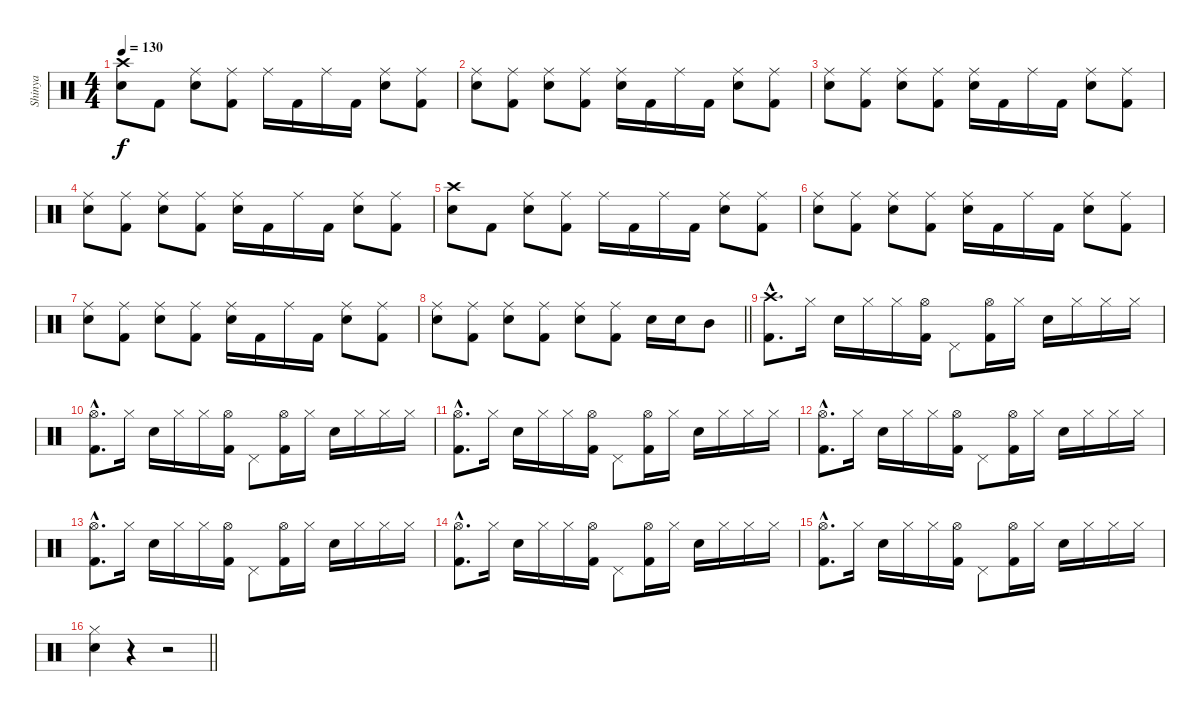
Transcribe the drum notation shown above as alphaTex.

\track ("Shinya" "Shinya") {instrument percussion}
\staff {score}
\articulation defaults
\ts (4 4)
\tempo 130
\clef neutral
\ks c
("Crash high (hit)" "Electric Snare (hit)").8{dy f} "Kick (hit) 2".8 ("Ride (middle)" "Electric Snare (hit)").8 ("Ride (middle)" "Kick (hit) 2").8 "Ride (middle)".16 "Kick (hit) 2".16 "Ride (middle)".16 "Kick (hit) 2".16 ("Ride (middle)" "Electric Snare (hit)").8 ("Ride (middle)" "Kick (hit) 2").8 |
("Ride (middle)" "Electric Snare (hit)").8 ("Ride (middle)" "Kick (hit) 2").8 ("Ride (middle)" "Electric Snare (hit)").8 ("Ride (middle)" "Kick (hit) 2").8 ("Ride (middle)" "Electric Snare (hit)").16 "Kick (hit) 2".16 "Ride (middle)".16 "Kick (hit) 2".16 ("Ride (middle)" "Electric Snare (hit)").8 ("Ride (middle)" "Kick (hit) 2").8 |
("Ride (middle)" "Electric Snare (hit)").8 ("Ride (middle)" "Kick (hit) 2").8 ("Ride (middle)" "Electric Snare (hit)").8 ("Ride (middle)" "Kick (hit) 2").8 ("Ride (middle)" "Electric Snare (hit)").16 "Kick (hit) 2".16 "Ride (middle)".16 "Kick (hit) 2".16 ("Ride (middle)" "Electric Snare (hit)").8 ("Ride (middle)" "Kick (hit) 2").8 |
("Ride (middle)" "Electric Snare (hit)").8 ("Ride (middle)" "Kick (hit) 2").8 ("Ride (middle)" "Electric Snare (hit)").8 ("Ride (middle)" "Kick (hit) 2").8 ("Ride (middle)" "Electric Snare (hit)").16 "Kick (hit) 2".16 "Ride (middle)".16 "Kick (hit) 2".16 ("Ride (middle)" "Electric Snare (hit)").8 ("Ride (middle)" "Kick (hit) 2").8 |
("Crash high (hit)" "Electric Snare (hit)").8 "Kick (hit) 2".8 ("Ride (middle)" "Electric Snare (hit)").8 ("Ride (middle)" "Kick (hit) 2").8 "Ride (middle)".16 "Kick (hit) 2".16 "Ride (middle)".16 "Kick (hit) 2".16 ("Ride (middle)" "Electric Snare (hit)").8 ("Ride (middle)" "Kick (hit) 2").8 |
("Ride (middle)" "Electric Snare (hit)").8 ("Ride (middle)" "Kick (hit) 2").8 ("Ride (middle)" "Electric Snare (hit)").8 ("Ride (middle)" "Kick (hit) 2").8 ("Ride (middle)" "Electric Snare (hit)").16 "Kick (hit) 2".16 "Ride (middle)".16 "Kick (hit) 2".16 ("Ride (middle)" "Electric Snare (hit)").8 ("Ride (middle)" "Kick (hit) 2").8 |
("Ride (middle)" "Electric Snare (hit)").8 ("Ride (middle)" "Kick (hit) 2").8 ("Ride (middle)" "Electric Snare (hit)").8 ("Ride (middle)" "Kick (hit) 2").8 ("Ride (middle)" "Electric Snare (hit)").16 "Kick (hit) 2".16 "Ride (middle)".16 "Kick (hit) 2".16 ("Ride (middle)" "Electric Snare (hit)").8 ("Ride (middle)" "Kick (hit) 2").8 |
\barLineRight lightlight
("Ride (middle)" "Electric Snare (hit)").8 ("Ride (middle)" "Kick (hit) 2").8 ("Ride (middle)" "Electric Snare (hit)").8 ("Ride (middle)" "Kick (hit) 2").8 ("Ride (middle)" "Electric Snare (hit)").8 ("Ride (middle)" "Kick (hit) 2").8 "Electric Snare (hit)".16 "Electric Snare (hit)".16 "Mid Tom (hit)".8 |
("Crash high (hit)"{hac} "Kick (hit) 2"{hac}).8{d} "Hi-Hat (closed)".16 "Electric Snare (hit)".16 "Hi-Hat (closed)".16 "Hi-Hat (closed)".16 ("Hi-Hat (open)" "Kick (hit) 2").16 "Pedal Hi-Hat (hit)".8 ("Hi-Hat (open)" "Kick (hit) 2").16 "Hi-Hat (closed)".16 "Electric Snare (hit)".16 "Hi-Hat (closed)".16 "Hi-Hat (closed)".16 "Hi-Hat (closed)".16 |
("Hi-Hat (open)"{hac} "Kick (hit) 2"{hac}).8{d} "Hi-Hat (closed)".16 "Electric Snare (hit)".16 "Hi-Hat (closed)".16 "Hi-Hat (closed)".16 ("Hi-Hat (open)" "Kick (hit) 2").16 "Pedal Hi-Hat (hit)".8 ("Hi-Hat (open)" "Kick (hit) 2").16 "Hi-Hat (closed)".16 "Electric Snare (hit)".16 "Hi-Hat (closed)".16 "Hi-Hat (closed)".16 "Hi-Hat (closed)".16 |
("Hi-Hat (open)"{hac} "Kick (hit) 2"{hac}).8{d} "Hi-Hat (closed)".16 "Electric Snare (hit)".16 "Hi-Hat (closed)".16 "Hi-Hat (closed)".16 ("Hi-Hat (open)" "Kick (hit) 2").16 "Pedal Hi-Hat (hit)".8 ("Hi-Hat (open)" "Kick (hit) 2").16 "Hi-Hat (closed)".16 "Electric Snare (hit)".16 "Hi-Hat (closed)".16 "Hi-Hat (closed)".16 "Hi-Hat (closed)".16 |
("Hi-Hat (open)"{hac} "Kick (hit) 2"{hac}).8{d} "Hi-Hat (closed)".16 "Electric Snare (hit)".16 "Hi-Hat (closed)".16 "Hi-Hat (closed)".16 ("Hi-Hat (open)" "Kick (hit) 2").16 "Pedal Hi-Hat (hit)".8 ("Hi-Hat (open)" "Kick (hit) 2").16 "Hi-Hat (closed)".16 "Electric Snare (hit)".16 "Hi-Hat (closed)".16 "Hi-Hat (closed)".16 "Hi-Hat (closed)".16 |
("Hi-Hat (open)"{hac} "Kick (hit) 2"{hac}).8{d} "Hi-Hat (closed)".16 "Electric Snare (hit)".16 "Hi-Hat (closed)".16 "Hi-Hat (closed)".16 ("Hi-Hat (open)" "Kick (hit) 2").16 "Pedal Hi-Hat (hit)".8 ("Hi-Hat (open)" "Kick (hit) 2").16 "Hi-Hat (closed)".16 "Electric Snare (hit)".16 "Hi-Hat (closed)".16 "Hi-Hat (closed)".16 "Hi-Hat (closed)".16 |
("Hi-Hat (open)"{hac} "Kick (hit) 2"{hac}).8{d} "Hi-Hat (closed)".16 "Electric Snare (hit)".16 "Hi-Hat (closed)".16 "Hi-Hat (closed)".16 ("Hi-Hat (open)" "Kick (hit) 2").16 "Pedal Hi-Hat (hit)".8 ("Hi-Hat (open)" "Kick (hit) 2").16 "Hi-Hat (closed)".16 "Electric Snare (hit)".16 "Hi-Hat (closed)".16 "Hi-Hat (closed)".16 "Hi-Hat (closed)".16 |
("Hi-Hat (open)"{hac} "Kick (hit) 2"{hac}).8{d} "Hi-Hat (closed)".16 "Electric Snare (hit)".16 "Hi-Hat (closed)".16 "Hi-Hat (closed)".16 ("Hi-Hat (open)" "Kick (hit) 2").16 "Pedal Hi-Hat (hit)".8 ("Hi-Hat (open)" "Kick (hit) 2").16 "Hi-Hat (closed)".16 "Electric Snare (hit)".16 "Hi-Hat (closed)".16 "Hi-Hat (closed)".16 "Hi-Hat (closed)".16 |
\barLineRight lightlight
("Hi-Hat (closed)" "Electric Snare (hit)").4 r.4 r.2
